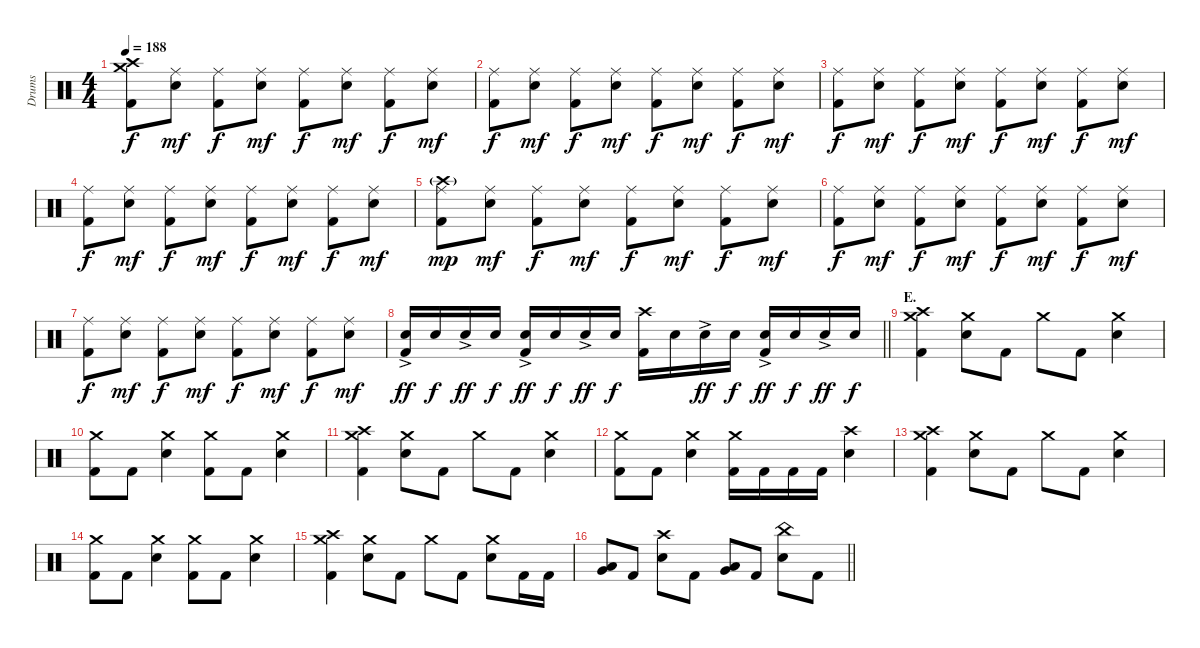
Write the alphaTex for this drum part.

\track ("Drums" "Drums") {instrument percussion}
\staff {score}
\articulation defaults
\ts (4 4)
\tempo 188
\clef neutral
\ks c
("Crash medium (hit)" "Crash high (hit)" "Kick (hit) 2").8{dy f} ("Ride (middle)" "Electric Snare (hit)").8{dy mf} ("Ride (middle)" "Kick (hit) 2").8{dy f} ("Ride (middle)" "Electric Snare (hit)").8{dy mf} ("Ride (middle)" "Kick (hit) 2").8{dy f} ("Ride (middle)" "Electric Snare (hit)").8{dy mf} ("Ride (middle)" "Kick (hit) 2").8{dy f} ("Ride (middle)" "Electric Snare (hit)").8{dy mf} |
("Ride (middle)" "Kick (hit) 2").8{dy f} ("Ride (middle)" "Electric Snare (hit)").8{dy mf} ("Ride (middle)" "Kick (hit) 2").8{dy f} ("Ride (middle)" "Electric Snare (hit)").8{dy mf} ("Ride (middle)" "Kick (hit) 2").8{dy f} ("Ride (middle)" "Electric Snare (hit)").8{dy mf} ("Ride (middle)" "Kick (hit) 2").8{dy f} ("Ride (middle)" "Electric Snare (hit)").8{dy mf} |
("Ride (middle)" "Kick (hit) 2").8{dy f} ("Ride (middle)" "Electric Snare (hit)").8{dy mf} ("Ride (middle)" "Kick (hit) 2").8{dy f} ("Ride (middle)" "Electric Snare (hit)").8{dy mf} ("Ride (middle)" "Kick (hit) 2").8{dy f} ("Ride (middle)" "Electric Snare (hit)").8{dy mf} ("Ride (middle)" "Kick (hit) 2").8{dy f} ("Ride (middle)" "Electric Snare (hit)").8{dy mf} |
("Ride (middle)" "Kick (hit) 2").8{dy f} ("Ride (middle)" "Electric Snare (hit)").8{dy mf} ("Ride (middle)" "Kick (hit) 2").8{dy f} ("Ride (middle)" "Electric Snare (hit)").8{dy mf} ("Ride (middle)" "Kick (hit) 2").8{dy f} ("Ride (middle)" "Electric Snare (hit)").8{dy mf} ("Ride (middle)" "Kick (hit) 2").8{dy f} ("Ride (middle)" "Electric Snare (hit)").8{dy mf} |
("Crash high (hit)"{g} "Ride (middle)" "Kick (hit) 2").8{dy mp} ("Ride (middle)" "Electric Snare (hit)").8{dy mf} ("Ride (middle)" "Kick (hit) 2").8{dy f} ("Ride (middle)" "Electric Snare (hit)").8{dy mf} ("Ride (middle)" "Kick (hit) 2").8{dy f} ("Ride (middle)" "Electric Snare (hit)").8{dy mf} ("Ride (middle)" "Kick (hit) 2").8{dy f} ("Ride (middle)" "Electric Snare (hit)").8{dy mf} |
("Ride (middle)" "Kick (hit) 2").8{dy f} ("Ride (middle)" "Electric Snare (hit)").8{dy mf} ("Ride (middle)" "Kick (hit) 2").8{dy f} ("Ride (middle)" "Electric Snare (hit)").8{dy mf} ("Ride (middle)" "Kick (hit) 2").8{dy f} ("Ride (middle)" "Electric Snare (hit)").8{dy mf} ("Ride (middle)" "Kick (hit) 2").8{dy f} ("Ride (middle)" "Electric Snare (hit)").8{dy mf} |
("Ride (middle)" "Kick (hit) 2").8{dy f} ("Ride (middle)" "Electric Snare (hit)").8{dy mf} ("Ride (middle)" "Kick (hit) 2").8{dy f} ("Ride (middle)" "Electric Snare (hit)").8{dy mf} ("Ride (middle)" "Kick (hit) 2").8{dy f} ("Ride (middle)" "Electric Snare (hit)").8{dy mf} ("Ride (middle)" "Kick (hit) 2").8{dy f} ("Ride (middle)" "Electric Snare (hit)").8{dy mf} |
\barLineRight lightlight
("Electric Snare (hit)"{ac} "Kick (hit) 2").16{dy ff} "Electric Snare (hit)".16{dy f} "Electric Snare (hit)"{ac}.16{dy ff} "Electric Snare (hit)".16{dy f} ("Electric Snare (hit)"{ac} "Kick (hit) 2").16{dy ff} "Electric Snare (hit)".16{dy f} "Electric Snare (hit)"{ac}.16{dy ff} "Electric Snare (hit)".16{dy f} ("Crash high (hit)" "Kick (hit) 2").16 "Electric Snare (hit)".16 "Electric Snare (hit)"{ac}.16{dy ff} "Electric Snare (hit)".16{dy f} ("Electric Snare (hit)"{ac} "Kick (hit) 2").16{dy ff} "Electric Snare (hit)".16{dy f} "Electric Snare (hit)"{ac}.16{dy ff} "Electric Snare (hit)".16{dy f} |
\section ("" "E.")
("Crash medium (hit)" "Crash high (hit)" "Kick (hit) 2").4 ("Crash medium (hit)" "Electric Snare (hit)").8 "Kick (hit) 2".8 "Crash medium (hit)".8 "Kick (hit) 2".8 ("Crash medium (hit)" "Electric Snare (hit)").4 |
("Crash medium (hit)" "Kick (hit) 2").8 "Kick (hit) 2".8 ("Crash medium (hit)" "Electric Snare (hit)").4 ("Crash medium (hit)" "Kick (hit) 2").8 "Kick (hit) 2".8 ("Crash medium (hit)" "Electric Snare (hit)").4 |
("Crash medium (hit)" "Crash high (hit)" "Kick (hit) 2").4 ("Crash medium (hit)" "Electric Snare (hit)").8 "Kick (hit) 2".8 "Crash medium (hit)".8 "Kick (hit) 2".8 ("Crash medium (hit)" "Electric Snare (hit)").4 |
("Crash medium (hit)" "Kick (hit) 2").8 "Kick (hit) 2".8 ("Crash medium (hit)" "Electric Snare (hit)").4 ("Crash medium (hit)" "Kick (hit) 2").16 "Kick (hit) 2".16 "Kick (hit) 2".16 "Kick (hit) 2".16 ("Crash high (hit)" "Electric Snare (hit)").4 |
("Crash medium (hit)" "Crash high (hit)" "Kick (hit) 2").4 ("Crash medium (hit)" "Electric Snare (hit)").8 "Kick (hit) 2".8 "Crash medium (hit)".8 "Kick (hit) 2".8 ("Crash medium (hit)" "Electric Snare (hit)").4 |
("Crash medium (hit)" "Kick (hit) 2").8 "Kick (hit) 2".8 ("Crash medium (hit)" "Electric Snare (hit)").4 ("Crash medium (hit)" "Kick (hit) 2").8 "Kick (hit) 2".8 ("Crash medium (hit)" "Electric Snare (hit)").4 |
("Crash medium (hit)" "Crash high (hit)" "Kick (hit) 2").4 ("Crash medium (hit)" "Electric Snare (hit)").8 "Kick (hit) 2".8 "Crash medium (hit)".8 "Kick (hit) 2".8 ("Crash medium (hit)" "Electric Snare (hit)").8 "Kick (hit) 2".16 "Kick (hit) 2".16 |
\barLineRight lightlight
("Low Tom (hit)" "Very Low Tom (hit)").8{bu 120} "Kick (hit) 2".8 ("Crash high (hit)" "Electric Snare (hit)").8 "Kick (hit) 2".8 ("Very Low Tom (hit)" "Low Floor Tom (hit)").8{bu 120} "Kick (hit) 2".8 ("China (hit)" "Electric Snare (hit)").8 "Kick (hit) 2".8
